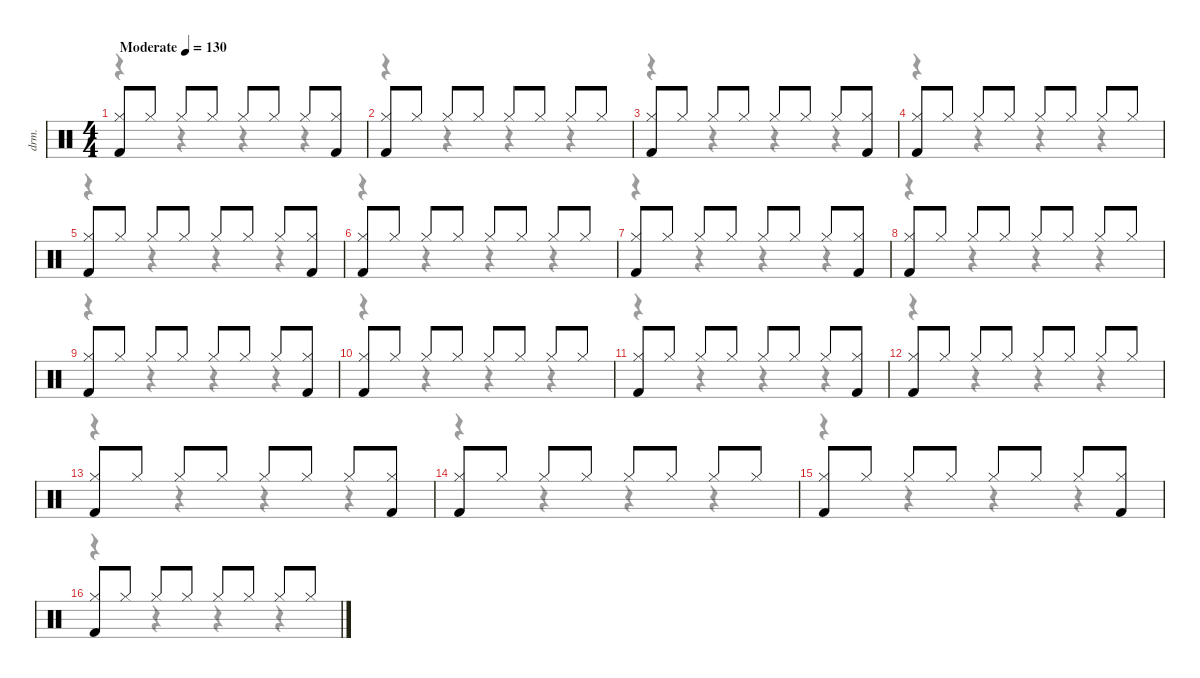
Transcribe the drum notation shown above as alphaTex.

\defaultSystemsLayout 4
\hideDynamics
\bracketExtendMode nobrackets
\track ("Drums" "drm.") {instrument percussion}
\staff {score}
\articulation defaults
\voice
\ts (4 4)
\beaming (8 2 2 2 2)
\tempo (130 "Moderate")
\clef neutral
\ks c
("Kick (hit) 2" "Hi-Hat (closed)").8{dy fff beam Up} "Hi-Hat (closed)".8{beam Up} "Hi-Hat (closed)".8{beam Up} "Hi-Hat (closed)".8{beam Up} "Hi-Hat (closed)".8{beam Up} "Hi-Hat (closed)".8{beam Up} "Hi-Hat (closed)".8{beam Up} ("Kick (hit) 2" "Hi-Hat (closed)").8{beam Up} |
("Kick (hit) 2" "Hi-Hat (closed)").8{beam Up} "Hi-Hat (closed)".8{beam Up} "Hi-Hat (closed)".8{beam Up} "Hi-Hat (closed)".8{beam Up} "Hi-Hat (closed)".8{beam Up} "Hi-Hat (closed)".8{beam Up} "Hi-Hat (closed)".8{beam Up} "Hi-Hat (closed)".8{beam Up} |
("Kick (hit) 2" "Hi-Hat (closed)").8{beam Up} "Hi-Hat (closed)".8{beam Up} "Hi-Hat (closed)".8{beam Up} "Hi-Hat (closed)".8{beam Up} "Hi-Hat (closed)".8{beam Up} "Hi-Hat (closed)".8{beam Up} "Hi-Hat (closed)".8{beam Up} ("Kick (hit) 2" "Hi-Hat (closed)").8{beam Up} |
("Kick (hit) 2" "Hi-Hat (closed)").8{beam Up} "Hi-Hat (closed)".8{beam Up} "Hi-Hat (closed)".8{beam Up} "Hi-Hat (closed)".8{beam Up} "Hi-Hat (closed)".8{beam Up} "Hi-Hat (closed)".8{beam Up} "Hi-Hat (closed)".8{beam Up} "Hi-Hat (closed)".8{beam Up} |
("Kick (hit) 2" "Hi-Hat (closed)").8{beam Up} "Hi-Hat (closed)".8{beam Up} "Hi-Hat (closed)".8{beam Up} "Hi-Hat (closed)".8{beam Up} "Hi-Hat (closed)".8{beam Up} "Hi-Hat (closed)".8{beam Up} "Hi-Hat (closed)".8{beam Up} ("Kick (hit) 2" "Hi-Hat (closed)").8{beam Up} |
("Kick (hit) 2" "Hi-Hat (closed)").8{beam Up} "Hi-Hat (closed)".8{beam Up} "Hi-Hat (closed)".8{beam Up} "Hi-Hat (closed)".8{beam Up} "Hi-Hat (closed)".8{beam Up} "Hi-Hat (closed)".8{beam Up} "Hi-Hat (closed)".8{beam Up} "Hi-Hat (closed)".8{beam Up} |
("Kick (hit) 2" "Hi-Hat (closed)").8{beam Up} "Hi-Hat (closed)".8{beam Up} "Hi-Hat (closed)".8{beam Up} "Hi-Hat (closed)".8{beam Up} "Hi-Hat (closed)".8{beam Up} "Hi-Hat (closed)".8{beam Up} "Hi-Hat (closed)".8{beam Up} ("Kick (hit) 2" "Hi-Hat (closed)").8{beam Up} |
("Kick (hit) 2" "Hi-Hat (closed)").8{beam Up} "Hi-Hat (closed)".8{beam Up} "Hi-Hat (closed)".8{beam Up} "Hi-Hat (closed)".8{beam Up} "Hi-Hat (closed)".8{beam Up} "Hi-Hat (closed)".8{beam Up} "Hi-Hat (closed)".8{beam Up} "Hi-Hat (closed)".8{beam Up} |
("Kick (hit) 2" "Hi-Hat (closed)").8{beam Up} "Hi-Hat (closed)".8{beam Up} "Hi-Hat (closed)".8{beam Up} "Hi-Hat (closed)".8{beam Up} "Hi-Hat (closed)".8{beam Up} "Hi-Hat (closed)".8{beam Up} "Hi-Hat (closed)".8{beam Up} ("Kick (hit) 2" "Hi-Hat (closed)").8{beam Up} |
("Kick (hit) 2" "Hi-Hat (closed)").8{beam Up} "Hi-Hat (closed)".8{beam Up} "Hi-Hat (closed)".8{beam Up} "Hi-Hat (closed)".8{beam Up} "Hi-Hat (closed)".8{beam Up} "Hi-Hat (closed)".8{beam Up} "Hi-Hat (closed)".8{beam Up} "Hi-Hat (closed)".8{beam Up} |
("Kick (hit) 2" "Hi-Hat (closed)").8{beam Up} "Hi-Hat (closed)".8{beam Up} "Hi-Hat (closed)".8{beam Up} "Hi-Hat (closed)".8{beam Up} "Hi-Hat (closed)".8{beam Up} "Hi-Hat (closed)".8{beam Up} "Hi-Hat (closed)".8{beam Up} ("Kick (hit) 2" "Hi-Hat (closed)").8{beam Up} |
("Kick (hit) 2" "Hi-Hat (closed)").8{beam Up} "Hi-Hat (closed)".8{beam Up} "Hi-Hat (closed)".8{beam Up} "Hi-Hat (closed)".8{beam Up} "Hi-Hat (closed)".8{beam Up} "Hi-Hat (closed)".8{beam Up} "Hi-Hat (closed)".8{beam Up} "Hi-Hat (closed)".8{beam Up} |
("Kick (hit) 2" "Hi-Hat (closed)").8{beam Up} "Hi-Hat (closed)".8{beam Up} "Hi-Hat (closed)".8{beam Up} "Hi-Hat (closed)".8{beam Up} "Hi-Hat (closed)".8{beam Up} "Hi-Hat (closed)".8{beam Up} "Hi-Hat (closed)".8{beam Up} ("Kick (hit) 2" "Hi-Hat (closed)").8{beam Up} |
("Kick (hit) 2" "Hi-Hat (closed)").8{beam Up} "Hi-Hat (closed)".8{beam Up} "Hi-Hat (closed)".8{beam Up} "Hi-Hat (closed)".8{beam Up} "Hi-Hat (closed)".8{beam Up} "Hi-Hat (closed)".8{beam Up} "Hi-Hat (closed)".8{beam Up} "Hi-Hat (closed)".8{beam Up} |
("Kick (hit) 2" "Hi-Hat (closed)").8{beam Up} "Hi-Hat (closed)".8{beam Up} "Hi-Hat (closed)".8{beam Up} "Hi-Hat (closed)".8{beam Up} "Hi-Hat (closed)".8{beam Up} "Hi-Hat (closed)".8{beam Up} "Hi-Hat (closed)".8{beam Up} ("Kick (hit) 2" "Hi-Hat (closed)").8{beam Up} |
("Kick (hit) 2" "Hi-Hat (closed)").8{beam Up} "Hi-Hat (closed)".8{beam Up} "Hi-Hat (closed)".8{beam Up} "Hi-Hat (closed)".8{beam Up} "Hi-Hat (closed)".8{beam Up} "Hi-Hat (closed)".8{beam Up} "Hi-Hat (closed)".8{beam Up} "Hi-Hat (closed)".8{beam Up}
\voice
\clef neutral
\ottava regular
\simile none
\ks c
r.4{dy mf beam Down} r.4{beam Down} r.4{beam Down} r.4{beam Down} |
r.4{beam Down} r.4{beam Down} r.4{beam Down} r.4{beam Down} |
r.4{beam Down} r.4{beam Down} r.4{beam Down} r.4{beam Down} |
r.4{beam Down} r.4{beam Down} r.4{beam Down} r.4{beam Down} |
r.4{beam Down} r.4{beam Down} r.4{beam Down} r.4{beam Down} |
r.4{beam Down} r.4{beam Down} r.4{beam Down} r.4{beam Down} |
r.4{beam Down} r.4{beam Down} r.4{beam Down} r.4{beam Down} |
r.4{beam Down} r.4{beam Down} r.4{beam Down} r.4{beam Down} |
r.4{beam Down} r.4{beam Down} r.4{beam Down} r.4{beam Down} |
r.4{beam Down} r.4{beam Down} r.4{beam Down} r.4{beam Down} |
r.4{beam Down} r.4{beam Down} r.4{beam Down} r.4{beam Down} |
r.4{beam Down} r.4{beam Down} r.4{beam Down} r.4{beam Down} |
r.4{beam Down} r.4{beam Down} r.4{beam Down} r.4{beam Down} |
r.4{beam Down} r.4{beam Down} r.4{beam Down} r.4{beam Down} |
r.4{beam Down} r.4{beam Down} r.4{beam Down} r.4{beam Down} |
r.4{beam Down} r.4{beam Down} r.4{beam Down} r.4{beam Down}
